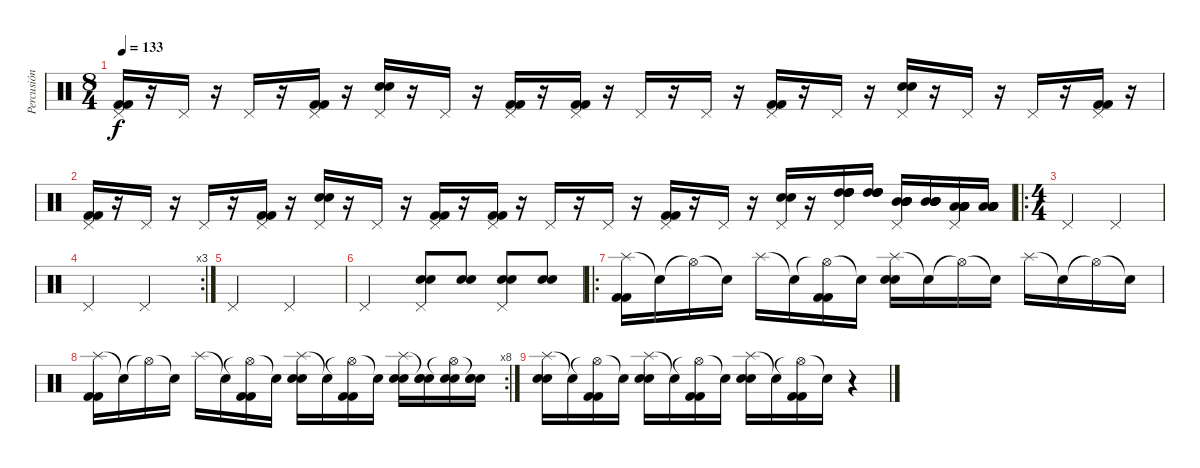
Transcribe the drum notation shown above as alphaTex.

\track ("Percusión" "Percusión") {instrument percussion}
\staff {score}
\articulation defaults
\ts (8 4)
\tempo 133
\clef neutral
\ks c
("Pedal Hi-Hat (hit)" "Kick (hit) 2" "Kick (hit) 2").16{dy f} r.16 "Pedal Hi-Hat (hit)".16 r.16 "Pedal Hi-Hat (hit)".16 r.16 ("Pedal Hi-Hat (hit)" "Kick (hit) 2" "Kick (hit) 2").16 r.16 ("Pedal Hi-Hat (hit)" "Electric Snare (hit)" "Electric Snare (hit)").16 r.16 "Pedal Hi-Hat (hit)".16 r.16 ("Pedal Hi-Hat (hit)" "Kick (hit) 2" "Kick (hit) 2").16 r.16 ("Pedal Hi-Hat (hit)" "Kick (hit) 2" "Kick (hit) 2").16 r.16 "Pedal Hi-Hat (hit)".16 r.16 "Pedal Hi-Hat (hit)".16 r.16 ("Pedal Hi-Hat (hit)" "Kick (hit) 2" "Kick (hit) 2").16 r.16 "Pedal Hi-Hat (hit)".16 r.16 ("Pedal Hi-Hat (hit)" "Electric Snare (hit)" "Electric Snare (hit)").16 r.16 "Pedal Hi-Hat (hit)".16 r.16 "Pedal Hi-Hat (hit)".16 r.16 ("Pedal Hi-Hat (hit)" "Kick (hit) 2" "Kick (hit) 2").16 r.16 |
("Pedal Hi-Hat (hit)" "Kick (hit) 2" "Kick (hit) 2").16 r.16 "Pedal Hi-Hat (hit)".16 r.16 "Pedal Hi-Hat (hit)".16 r.16 ("Pedal Hi-Hat (hit)" "Kick (hit) 2" "Kick (hit) 2").16 r.16 ("Pedal Hi-Hat (hit)" "Electric Snare (hit)" "Electric Snare (hit)").16 r.16 "Pedal Hi-Hat (hit)".16 r.16 ("Pedal Hi-Hat (hit)" "Kick (hit) 2" "Kick (hit) 2").16 r.16 ("Pedal Hi-Hat (hit)" "Kick (hit) 2" "Kick (hit) 2").16 r.16 "Pedal Hi-Hat (hit)".16 r.16 "Pedal Hi-Hat (hit)".16 r.16 ("Pedal Hi-Hat (hit)" "Kick (hit) 2" "Kick (hit) 2").16 r.16 "Pedal Hi-Hat (hit)".16 r.16 ("Pedal Hi-Hat (hit)" "Electric Snare (hit)" "Electric Snare (hit)").16 r.16 ("Pedal Hi-Hat (hit)" "High Tom (hit)" "High Tom (hit)" "High Tom (hit)" "High Tom (hit)" "High Tom (hit)").16 ("High Tom (hit)" "High Tom (hit)" "High Tom (hit)" "High Tom (hit)" "High Tom (hit)").16 ("Pedal Hi-Hat (hit)" "Mid Tom (hit)" "Mid Tom (hit)" "Mid Tom (hit)" "Mid Tom (hit)" "Mid Tom (hit)").16 ("Mid Tom (hit)" "Mid Tom (hit)" "Mid Tom (hit)" "Mid Tom (hit)" "Mid Tom (hit)").16 ("Pedal Hi-Hat (hit)" "Low Tom (hit)" "Low Tom (hit)" "Low Tom (hit)" "Low Tom (hit)" "Low Tom (hit)").16 ("Low Tom (hit)" "Low Tom (hit)" "Low Tom (hit)" "Low Tom (hit)" "Low Tom (hit)").16 |
\ro
\ts (4 4)
"Pedal Hi-Hat (hit)".2 "Pedal Hi-Hat (hit)".2 |
\rc 3 "Pedal Hi-Hat (hit)".2 "Pedal Hi-Hat (hit)".2
|
"Pedal Hi-Hat (hit)".2 "Pedal Hi-Hat (hit)".2 |
"Pedal Hi-Hat (hit)".2 ("Pedal Hi-Hat (hit)" "Electric Snare (hit)" "Electric Snare (hit)").8 ("Electric Snare (hit)" "Electric Snare (hit)").8 ("Pedal Hi-Hat (hit)" "Electric Snare (hit)" "Electric Snare (hit)").8 ("Electric Snare (hit)" "Electric Snare (hit)").8 |
\ro
("Splash (hit)" "Kick (hit) 2" "Kick (hit) 2").16 "Snare (hit)"{t}.16 "Hi-Hat (open)"{t}.16 "Snare (hit)"{t}.16 "Splash (hit)".16 "Snare (hit)"{t}.16 ("Hi-Hat (open)"{t} "Kick (hit) 2" "Kick (hit) 2").16 "Snare (hit)"{t}.16 ("Splash (hit)" "Electric Snare (hit)" "Electric Snare (hit)").16 "Snare (hit)"{t}.16 "Hi-Hat (open)"{t}.16 "Snare (hit)"{t}.16 "Splash (hit)".16 "Snare (hit)"{t}.16 "Hi-Hat (open)"{t}.16 "Snare (hit)"{t}.16 |
\rc 8
("Splash (hit)" "Kick (hit) 2" "Kick (hit) 2").16 "Snare (hit)"{t}.16 "Hi-Hat (open)"{t}.16 "Snare (hit)"{t}.16 "Splash (hit)".16 "Snare (hit)"{t}.16 ("Hi-Hat (open)"{t} "Kick (hit) 2" "Kick (hit) 2").16 "Snare (hit)"{t}.16 ("Splash (hit)" "Electric Snare (hit)" "Electric Snare (hit)").16 "Snare (hit)"{t}.16 ("Hi-Hat (open)"{t} "Kick (hit) 2" "Kick (hit) 2").16 "Snare (hit)"{t}.16 ("Splash (hit)" "Electric Snare (hit)" "Electric Snare (hit)").16 ("Snare (hit)"{t} "Electric Snare (hit)" "Electric Snare (hit)").16 ("Hi-Hat (open)"{t} "Electric Snare (hit)" "Electric Snare (hit)").16 ("Snare (hit)"{t} "Electric Snare (hit)" "Electric Snare (hit)").16 |
("Splash (hit)" "Electric Snare (hit)" "Electric Snare (hit)").16 "Snare (hit)"{t}.16 ("Hi-Hat (open)"{t} "Kick (hit) 2" "Kick (hit) 2").16 "Snare (hit)"{t}.16 ("Splash (hit)" "Electric Snare (hit)" "Electric Snare (hit)").16 "Snare (hit)"{t}.16 ("Hi-Hat (open)"{t} "Kick (hit) 2" "Kick (hit) 2").16 "Snare (hit)"{t}.16 ("Splash (hit)" "Electric Snare (hit)" "Electric Snare (hit)").16 "Snare (hit)"{t}.16 ("Hi-Hat (open)"{t} "Kick (hit) 2" "Kick (hit) 2").16 "Snare (hit)"{t}.16 r.4
